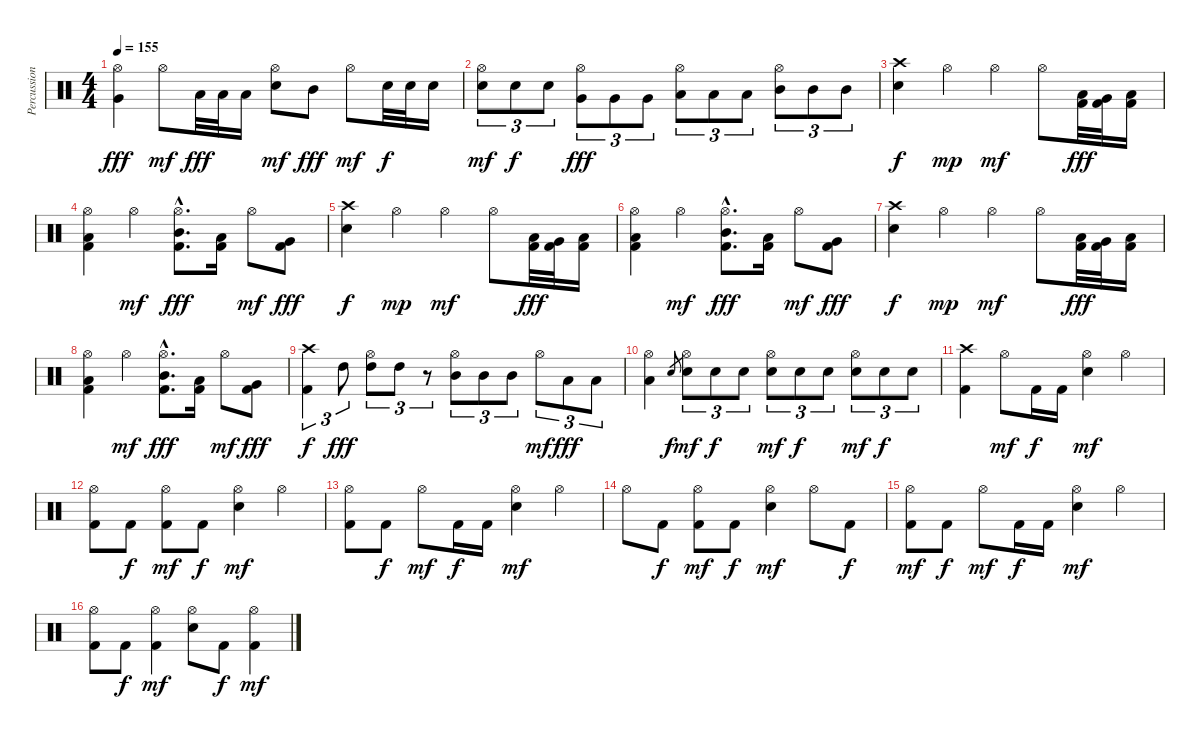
\track ("Percussion" "Percussion") {instrument percussion}
\staff {score}
\articulation defaults
\ts (4 4)
\tempo 155
\clef neutral
\ks c
("Hi-Hat (open)" "Very Low Tom (hit)").4{dy fff} "Hi-Hat (open)".8{dy mf} "Low Tom (hit)".32{dy fff} "Low Tom (hit)".32 "Low Tom (hit)".16 ("Hi-Hat (open)" "Electric Snare (hit)").8{dy mf} "Mid Tom (hit)".8{dy fff} "Hi-Hat (open)".8{dy mf} "Electric Snare (hit)".32{dy f} "Electric Snare (hit)".32 "Electric Snare (hit)".16 |
("Hi-Hat (open)" "Electric Snare (hit)").8{tu (3 2) dy mf} "Electric Snare (hit)".8{tu (3 2) dy f} "Electric Snare (hit)".8{tu (3 2)} ("Hi-Hat (open)" "Very Low Tom (hit)").8{tu (3 2) dy fff} "Very Low Tom (hit)".8{tu (3 2)} "Very Low Tom (hit)".8{tu (3 2)} ("Hi-Hat (open)" "Low Tom (hit)").8{tu (3 2)} "Low Tom (hit)".8{tu (3 2)} "Low Tom (hit)".8{tu (3 2)} ("Hi-Hat (open)" "Mid Tom (hit)").8{tu (3 2)} "Mid Tom (hit)".8{tu (3 2)} "Mid Tom (hit)".8{tu (3 2)} |
("Crash high (hit)" "Snare (hit) 2").4{dy f} "Hi-Hat (open)".4{dy mp} "Hi-Hat (open)".4{dy mf} "Hi-Hat (open)".8 ("Low Tom (hit)" "Kick (hit) 2").32{dy fff} ("Very Low Tom (hit)" "Kick (hit) 2").32 ("Low Floor Tom (hit)" "Kick (hit) 2").16 |
("Hi-Hat (open)" "Low Floor Tom (hit)" "Kick (hit) 2").4 "Hi-Hat (open)".4{dy mf} ("Hi-Hat (open)"{hac} "Mid Tom (hit)"{hac} "Kick (hit) 2"{hac}).8{d dy fff} ("Low Tom (hit)" "Kick (hit) 2").16 "Hi-Hat (open)".8{dy mf} ("Very Low Tom (hit)" "Kick (hit) 2").8{dy fff} |
("Crash high (hit)" "Snare (hit) 2").4{dy f} "Hi-Hat (open)".4{dy mp} "Hi-Hat (open)".4{dy mf} "Hi-Hat (open)".8 ("Low Tom (hit)" "Kick (hit) 2").32{dy fff} ("Very Low Tom (hit)" "Kick (hit) 2").32 ("Low Floor Tom (hit)" "Kick (hit) 2").16 |
("Hi-Hat (open)" "Low Floor Tom (hit)" "Kick (hit) 2").4 "Hi-Hat (open)".4{dy mf} ("Hi-Hat (open)"{hac} "Mid Tom (hit)"{hac} "Kick (hit) 2"{hac}).8{d dy fff} ("Low Tom (hit)" "Kick (hit) 2").16 "Hi-Hat (open)".8{dy mf} ("Very Low Tom (hit)" "Kick (hit) 2").8{dy fff} |
("Crash high (hit)" "Snare (hit) 2").4{dy f} "Hi-Hat (open)".4{dy mp} "Hi-Hat (open)".4{dy mf} "Hi-Hat (open)".8 ("Low Tom (hit)" "Kick (hit) 2").32{dy fff} ("Very Low Tom (hit)" "Kick (hit) 2").32 ("Low Floor Tom (hit)" "Kick (hit) 2").16 |
("Hi-Hat (open)" "Low Floor Tom (hit)" "Kick (hit) 2").4 "Hi-Hat (open)".4{dy mf} ("Hi-Hat (open)"{hac} "Mid Tom (hit)"{hac} "Kick (hit) 2"{hac}).8{d dy fff} ("Low Tom (hit)" "Kick (hit) 2").16 "Hi-Hat (open)".8{dy mf} ("Very Low Tom (hit)" "Kick (hit) 2").8{dy fff} |
("Crash high (hit)" "Kick (hit) 2").4{tu (3 2) dy f} "High Tom (hit)".8{tu (3 2) dy fff} ("Hi-Hat (open)" "High Tom (hit)").8{tu (3 2)} "High Tom (hit)".8{tu (3 2)} r.8{tu (3 2)} ("Hi-Hat (open)" "Mid Tom (hit)").8{tu (3 2)} "Mid Tom (hit)".8{tu (3 2)} "Mid Tom (hit)".8{tu (3 2)} "Hi-Hat (open)".8{tu (3 2) dy mf} "Low Tom (hit)".8{tu (3 2) dy fff} "Low Tom (hit)".8{tu (3 2)} |
("Hi-Hat (open)" "Low Tom (hit)").4 "Electric Snare (hit)".8{gr dy f} ("Hi-Hat (open)" "Electric Snare (hit)").8{tu (3 2) dy mf} "Electric Snare (hit)".8{tu (3 2) dy f} "Electric Snare (hit)".8{tu (3 2)} ("Hi-Hat (open)" "Electric Snare (hit)").8{tu (3 2) dy mf} "Electric Snare (hit)".8{tu (3 2) dy f} "Electric Snare (hit)".8{tu (3 2)} ("Hi-Hat (open)" "Electric Snare (hit)").8{tu (3 2) dy mf} "Electric Snare (hit)".8{tu (3 2) dy f} "Electric Snare (hit)".8{tu (3 2)} |
("Crash high (hit)" "Kick (hit) 2").4 "Hi-Hat (open)".8{dy mf} "Kick (hit) 2".16{dy f} "Kick (hit) 2".16 ("Hi-Hat (open)" "Electric Snare (hit)").4{dy mf} "Hi-Hat (open)".4 |
("Hi-Hat (open)" "Kick (hit) 2").8 "Kick (hit) 2".8{dy f} ("Hi-Hat (open)" "Kick (hit) 2").8{dy mf} "Kick (hit) 2".8{dy f} ("Hi-Hat (open)" "Electric Snare (hit)").4{dy mf} "Hi-Hat (open)".4 |
("Hi-Hat (open)" "Kick (hit) 2").8 "Kick (hit) 2".8{dy f} "Hi-Hat (open)".8{dy mf} "Kick (hit) 2".16{dy f} "Kick (hit) 2".16 ("Hi-Hat (open)" "Electric Snare (hit)").4{dy mf} "Hi-Hat (open)".4 |
"Hi-Hat (open)".8 "Kick (hit) 2".8{dy f} ("Hi-Hat (open)" "Kick (hit) 2").8{dy mf} "Kick (hit) 2".8{dy f} ("Hi-Hat (open)" "Electric Snare (hit)").4{dy mf} "Hi-Hat (open)".8 "Kick (hit) 2".8{dy f} |
("Hi-Hat (open)" "Kick (hit) 2").8{dy mf} "Kick (hit) 2".8{dy f} "Hi-Hat (open)".8{dy mf} "Kick (hit) 2".16{dy f} "Kick (hit) 2".16 ("Hi-Hat (open)" "Electric Snare (hit)").4{dy mf} "Hi-Hat (open)".4 |
("Hi-Hat (open)" "Kick (hit) 2").8 "Kick (hit) 2".8{dy f} ("Hi-Hat (open)" "Kick (hit) 2").4{dy mf} ("Hi-Hat (open)" "Electric Snare (hit)").8 "Kick (hit) 2".8{dy f} ("Hi-Hat (open)" "Kick (hit) 2").4{dy mf}
